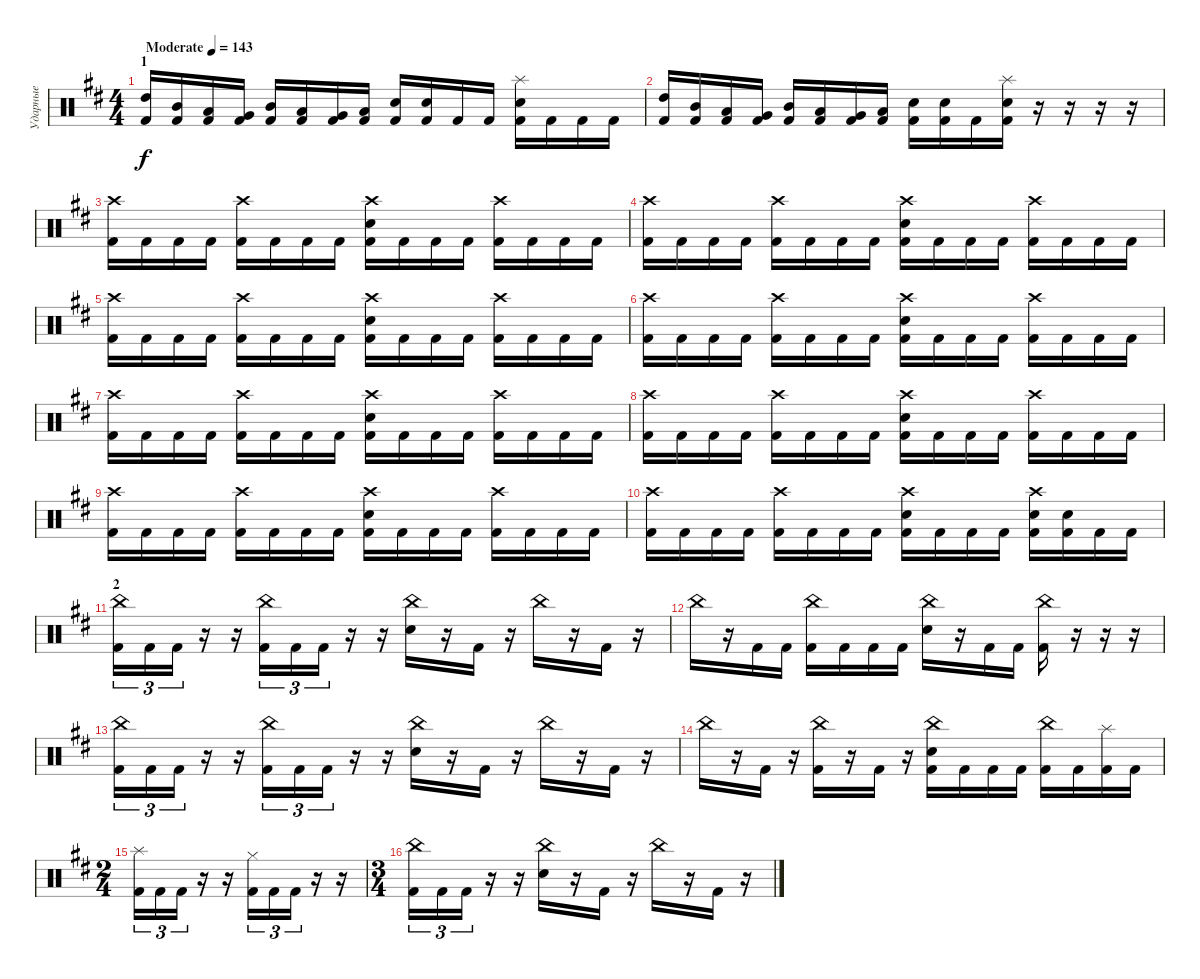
\track ("Ударные" "Ударные") {instrument percussion}
\staff {score}
\articulation defaults
\ts (4 4)
\section ("" "1")
\tempo (143 "Moderate")
\clef neutral
\ks bminor
("High Tom (hit)" "Kick (hit) 2").16{dy f} ("Mid Tom (hit)" "Kick (hit) 2").16 ("Low Tom (hit)" "Kick (hit) 2").16 ("Very Low Tom (hit)" "Kick (hit) 2").16 ("Mid Tom (hit)" "Kick (hit) 2").16 ("Low Tom (hit)" "Kick (hit) 2").16 ("Very Low Tom (hit)" "Kick (hit) 2").16 ("Low Floor Tom (hit)" "Kick (hit) 2").16 ("Electric Snare (hit)" "Kick (hit) 2").16 ("Electric Snare (hit)" "Kick (hit) 2").16 "Kick (hit) 2".16 "Kick (hit) 2".16 ("Electric Snare (hit)" "Kick (hit) 2" "Splash (hit)").16 "Kick (hit) 2".16 "Kick (hit) 2".16 "Kick (hit) 2".16 |
("High Tom (hit)" "Kick (hit) 2").16 ("Mid Tom (hit)" "Kick (hit) 2").16 ("Low Tom (hit)" "Kick (hit) 2").16 ("Very Low Tom (hit)" "Kick (hit) 2").16 ("Mid Tom (hit)" "Kick (hit) 2").16 ("Low Tom (hit)" "Kick (hit) 2").16 ("Very Low Tom (hit)" "Kick (hit) 2").16 ("Low Floor Tom (hit)" "Kick (hit) 2").16 ("Electric Snare (hit)" "Kick (hit) 2").16 ("Electric Snare (hit)" "Kick (hit) 2").16 "Kick (hit) 2".16 ("Electric Snare (hit)" "Kick (hit) 2" "Splash (hit)").16 r.16 r.16 r.16 r.16 |
("Kick (hit) 2" "Crash high (hit)").16 "Kick (hit) 2".16 "Kick (hit) 2".16 "Kick (hit) 2".16 ("Kick (hit) 2" "Crash high (hit)").16 "Kick (hit) 2".16 "Kick (hit) 2".16 "Kick (hit) 2".16 ("Kick (hit) 2" "Electric Snare (hit)" "Crash high (hit)").16 "Kick (hit) 2".16 "Kick (hit) 2".16 "Kick (hit) 2".16 ("Kick (hit) 2" "Crash high (hit)").16 "Kick (hit) 2".16 "Kick (hit) 2".16 "Kick (hit) 2".16 |
("Kick (hit) 2" "Crash high (hit)").16 "Kick (hit) 2".16 "Kick (hit) 2".16 "Kick (hit) 2".16 ("Kick (hit) 2" "Crash high (hit)").16 "Kick (hit) 2".16 "Kick (hit) 2".16 "Kick (hit) 2".16 ("Kick (hit) 2" "Electric Snare (hit)" "Crash high (hit)").16 "Kick (hit) 2".16 "Kick (hit) 2".16 "Kick (hit) 2".16 ("Kick (hit) 2" "Crash high (hit)").16 "Kick (hit) 2".16 "Kick (hit) 2".16 "Kick (hit) 2".16 |
("Kick (hit) 2" "Crash high (hit)").16 "Kick (hit) 2".16 "Kick (hit) 2".16 "Kick (hit) 2".16 ("Kick (hit) 2" "Crash high (hit)").16 "Kick (hit) 2".16 "Kick (hit) 2".16 "Kick (hit) 2".16 ("Kick (hit) 2" "Electric Snare (hit)" "Crash high (hit)").16 "Kick (hit) 2".16 "Kick (hit) 2".16 "Kick (hit) 2".16 ("Kick (hit) 2" "Crash high (hit)").16 "Kick (hit) 2".16 "Kick (hit) 2".16 "Kick (hit) 2".16 |
("Kick (hit) 2" "Crash high (hit)").16 "Kick (hit) 2".16 "Kick (hit) 2".16 "Kick (hit) 2".16 ("Kick (hit) 2" "Crash high (hit)").16 "Kick (hit) 2".16 "Kick (hit) 2".16 "Kick (hit) 2".16 ("Kick (hit) 2" "Electric Snare (hit)" "Crash high (hit)").16 "Kick (hit) 2".16 "Kick (hit) 2".16 "Kick (hit) 2".16 ("Kick (hit) 2" "Crash high (hit)").16 "Kick (hit) 2".16 "Kick (hit) 2".16 "Kick (hit) 2".16 |
("Kick (hit) 2" "Crash high (hit)").16 "Kick (hit) 2".16 "Kick (hit) 2".16 "Kick (hit) 2".16 ("Kick (hit) 2" "Crash high (hit)").16 "Kick (hit) 2".16 "Kick (hit) 2".16 "Kick (hit) 2".16 ("Kick (hit) 2" "Electric Snare (hit)" "Crash high (hit)").16 "Kick (hit) 2".16 "Kick (hit) 2".16 "Kick (hit) 2".16 ("Kick (hit) 2" "Crash high (hit)").16 "Kick (hit) 2".16 "Kick (hit) 2".16 "Kick (hit) 2".16 |
("Kick (hit) 2" "Crash high (hit)").16 "Kick (hit) 2".16 "Kick (hit) 2".16 "Kick (hit) 2".16 ("Kick (hit) 2" "Crash high (hit)").16 "Kick (hit) 2".16 "Kick (hit) 2".16 "Kick (hit) 2".16 ("Kick (hit) 2" "Electric Snare (hit)" "Crash high (hit)").16 "Kick (hit) 2".16 "Kick (hit) 2".16 "Kick (hit) 2".16 ("Kick (hit) 2" "Crash high (hit)").16 "Kick (hit) 2".16 "Kick (hit) 2".16 "Kick (hit) 2".16 |
("Kick (hit) 2" "Crash high (hit)").16 "Kick (hit) 2".16 "Kick (hit) 2".16 "Kick (hit) 2".16 ("Kick (hit) 2" "Crash high (hit)").16 "Kick (hit) 2".16 "Kick (hit) 2".16 "Kick (hit) 2".16 ("Kick (hit) 2" "Electric Snare (hit)" "Crash high (hit)").16 "Kick (hit) 2".16 "Kick (hit) 2".16 "Kick (hit) 2".16 ("Kick (hit) 2" "Crash high (hit)").16 "Kick (hit) 2".16 "Kick (hit) 2".16 "Kick (hit) 2".16 |
("Kick (hit) 2" "Crash high (hit)").16 "Kick (hit) 2".16 "Kick (hit) 2".16 "Kick (hit) 2".16 ("Kick (hit) 2" "Crash high (hit)").16 "Kick (hit) 2".16 "Kick (hit) 2".16 "Kick (hit) 2".16 ("Kick (hit) 2" "Electric Snare (hit)" "Crash high (hit)").16 "Kick (hit) 2".16 "Kick (hit) 2".16 "Kick (hit) 2".16 ("Kick (hit) 2" "Crash high (hit)" "Electric Snare (hit)").16 ("Kick (hit) 2" "Electric Snare (hit)").16 "Kick (hit) 2".16 "Kick (hit) 2".16 |
\section ("" "2")
("China (hit)" "Kick (hit) 2").16{tu (3 2)} "Kick (hit) 2".16{tu (3 2)} "Kick (hit) 2".16{tu (3 2)} r.16 r.16 ("China (hit)" "Kick (hit) 2").16{tu (3 2)} "Kick (hit) 2".16{tu (3 2)} "Kick (hit) 2".16{tu (3 2)} r.16 r.16 ("Electric Snare (hit)" "China (hit)").16 r.16 "Kick (hit) 2".16 r.16 "China (hit)".16 r.16 "Kick (hit) 2".16 r.16 |
"China (hit)".16 r.16 "Kick (hit) 2".16 "Kick (hit) 2".16 ("Kick (hit) 2" "China (hit)").16 "Kick (hit) 2".16 "Kick (hit) 2".16 "Kick (hit) 2".16 ("China (hit)" "Electric Snare (hit)").16 r.16 "Kick (hit) 2".16 "Kick (hit) 2".16 ("Kick (hit) 2" "China (hit)").16 r.16 r.16 r.16 |
("China (hit)" "Kick (hit) 2").16{tu (3 2)} "Kick (hit) 2".16{tu (3 2)} "Kick (hit) 2".16{tu (3 2)} r.16 r.16 ("China (hit)" "Kick (hit) 2").16{tu (3 2)} "Kick (hit) 2".16{tu (3 2)} "Kick (hit) 2".16{tu (3 2)} r.16 r.16 ("Electric Snare (hit)" "China (hit)").16 r.16 "Kick (hit) 2".16 r.16 "China (hit)".16 r.16 "Kick (hit) 2".16 r.16 |
"China (hit)".16 r.16 "Kick (hit) 2".16 r.16 ("Kick (hit) 2" "China (hit)").16 r.16 "Kick (hit) 2".16 r.16 ("Kick (hit) 2" "China (hit)" "Electric Snare (hit)").16 "Kick (hit) 2".16 "Kick (hit) 2".16 "Kick (hit) 2".16 ("Kick (hit) 2" "China (hit)").16 "Kick (hit) 2".16 ("Kick (hit) 2" "Splash (hit)").16 "Kick (hit) 2".16 |
\ts (2 4)
("Kick (hit) 2" "Splash (hit)").16{tu (3 2)} "Kick (hit) 2".16{tu (3 2)} "Kick (hit) 2".16{tu (3 2)} r.16 r.16 ("Kick (hit) 2" "Hi-Hat (closed)").16{tu (3 2)} "Kick (hit) 2".16{tu (3 2)} "Kick (hit) 2".16{tu (3 2)} r.16 r.16 |
\ts (3 4)
("China (hit)" "Kick (hit) 2").16{tu (3 2)} "Kick (hit) 2".16{tu (3 2)} "Kick (hit) 2".16{tu (3 2)} r.16 r.16 ("Electric Snare (hit)" "China (hit)").16 r.16 "Kick (hit) 2".16 r.16 "China (hit)".16 r.16 "Kick (hit) 2".16 r.16
